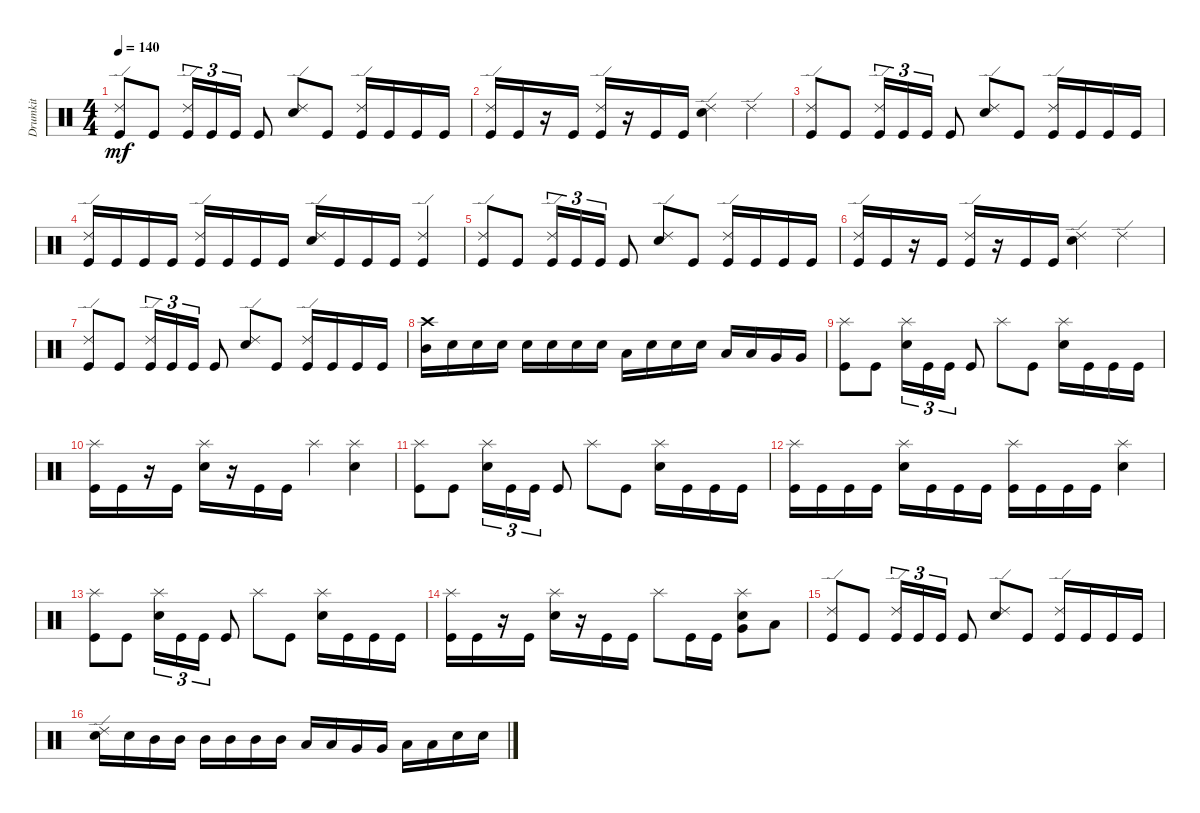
\track ("Drumkit" "Drumkit") {instrument percussion}
\staff {score}
\articulation defaults
\ts (4 4)
\tempo 140
\clef neutral
\ks c
("Ride (edge) 2" "Kick (hit)").8{dy mf} "Kick (hit)".8 ("Kick (hit)" "Ride (edge) 2").16{tu (3 2)} "Kick (hit)".16{tu (3 2)} "Kick (hit)".16{tu (3 2)} "Kick (hit)".8 ("Ride (edge) 2" "Snare (hit) 2").8 "Kick (hit)".8 ("Kick (hit)" "Ride (edge) 2").16 "Kick (hit)".16 "Kick (hit)".16 "Kick (hit)".16 |
("Kick (hit)" "Ride (edge) 2").16 "Kick (hit)".16 r.16 "Kick (hit)".16 ("Kick (hit)" "Ride (edge) 2").16 r.16 "Kick (hit)".16 "Kick (hit)".16 ("Ride (edge) 2" "Snare (hit) 2").4 "Ride (edge) 2".4 |
("Ride (edge) 2" "Kick (hit)").8 "Kick (hit)".8 ("Kick (hit)" "Ride (edge) 2").16{tu (3 2)} "Kick (hit)".16{tu (3 2)} "Kick (hit)".16{tu (3 2)} "Kick (hit)".8 ("Ride (edge) 2" "Snare (hit) 2").8 "Kick (hit)".8 ("Kick (hit)" "Ride (edge) 2").16 "Kick (hit)".16 "Kick (hit)".16 "Kick (hit)".16 |
("Kick (hit)" "Ride (edge) 2").16 "Kick (hit)".16 "Kick (hit)".16 "Kick (hit)".16 ("Kick (hit)" "Ride (edge) 2").16 "Kick (hit)".16 "Kick (hit)".16 "Kick (hit)".16 ("Snare (hit) 2" "Ride (edge) 2").16 "Kick (hit)".16 "Kick (hit)".16 "Kick (hit)".16 ("Kick (hit)" "Ride (edge) 2").4 |
("Ride (edge) 2" "Kick (hit)").8 "Kick (hit)".8 ("Kick (hit)" "Ride (edge) 2").16{tu (3 2)} "Kick (hit)".16{tu (3 2)} "Kick (hit)".16{tu (3 2)} "Kick (hit)".8 ("Ride (edge) 2" "Snare (hit) 2").8 "Kick (hit)".8 ("Kick (hit)" "Ride (edge) 2").16 "Kick (hit)".16 "Kick (hit)".16 "Kick (hit)".16 |
("Kick (hit)" "Ride (edge) 2").16 "Kick (hit)".16 r.16 "Kick (hit)".16 ("Kick (hit)" "Ride (edge) 2").16 r.16 "Kick (hit)".16 "Kick (hit)".16 ("Ride (edge) 2" "Snare (hit) 2").4 "Ride (edge) 2".4 |
("Ride (edge) 2" "Kick (hit)").8 "Kick (hit)".8 ("Kick (hit)" "Ride (edge) 2").16{tu (3 2)} "Kick (hit)".16{tu (3 2)} "Kick (hit)".16{tu (3 2)} "Kick (hit)".8 ("Ride (edge) 2" "Snare (hit) 2").8 "Kick (hit)".8 ("Kick (hit)" "Ride (edge) 2").16 "Kick (hit)".16 "Kick (hit)".16 "Kick (hit)".16 |
("Mid Tom (hit)" "Crash high (hit)").16 "Snare (hit) 2".16 "Snare (hit) 2".16 "Snare (hit) 2".16 "Snare (hit) 2".16 "Snare (hit) 2".16 "Snare (hit) 2".16 "Snare (hit) 2".16 "Low Tom (hit)".16 "Snare (hit) 2".16 "Snare (hit) 2".16 "Snare (hit) 2".16 "Low Tom (hit)".16 "Low Tom (hit)".16 "Very Low Tom (hit)".16 "Very Low Tom (hit)".16 |
("Kick (hit)" "Splash (hit)").8 "Kick (hit)".8 ("Splash (hit)" "Snare (hit) 2").16{tu (3 2)} "Kick (hit)".16{tu (3 2)} "Kick (hit)".16{tu (3 2)} "Kick (hit)".8 "Splash (hit)".8 "Kick (hit)".8 ("Splash (hit)" "Snare (hit) 2").16 "Kick (hit)".16 "Kick (hit)".16 "Kick (hit)".16 |
("Kick (hit)" "Splash (hit)").16 "Kick (hit)".16 r.16 "Kick (hit)".16 ("Snare (hit) 2" "Splash (hit)").16 r.16 "Kick (hit)".16 "Kick (hit)".16 "Splash (hit)".4 ("Snare (hit) 2" "Splash (hit)").4 |
("Kick (hit)" "Splash (hit)").8 "Kick (hit)".8 ("Splash (hit)" "Snare (hit) 2").16{tu (3 2)} "Kick (hit)".16{tu (3 2)} "Kick (hit)".16{tu (3 2)} "Kick (hit)".8 "Splash (hit)".8 "Kick (hit)".8 ("Splash (hit)" "Snare (hit) 2").16 "Kick (hit)".16 "Kick (hit)".16 "Kick (hit)".16 |
("Kick (hit)" "Splash (hit)").16 "Kick (hit)".16 "Kick (hit)".16 "Kick (hit)".16 ("Snare (hit) 2" "Splash (hit)").16 "Kick (hit)".16 "Kick (hit)".16 "Kick (hit)".16 ("Kick (hit)" "Splash (hit)").16 "Kick (hit)".16 "Kick (hit)".16 "Kick (hit)".16 ("Snare (hit) 2" "Splash (hit)").4 |
("Kick (hit)" "Splash (hit)").8 "Kick (hit)".8 ("Splash (hit)" "Snare (hit) 2").16{tu (3 2)} "Kick (hit)".16{tu (3 2)} "Kick (hit)".16{tu (3 2)} "Kick (hit)".8 "Splash (hit)".8 "Kick (hit)".8 ("Splash (hit)" "Snare (hit) 2").16 "Kick (hit)".16 "Kick (hit)".16 "Kick (hit)".16 |
("Kick (hit)" "Splash (hit)").16 "Kick (hit)".16 r.16 "Kick (hit)".16 ("Snare (hit) 2" "Splash (hit)").16 r.16 "Kick (hit)".16 "Kick (hit)".16 "Splash (hit)".8 "Kick (hit)".16 "Kick (hit)".16 ("Snare (hit) 2" "Splash (hit)" "Very Low Tom (hit)").8 "Low Floor Tom (hit)".8 |
("Ride (edge) 2" "Kick (hit)").8 "Kick (hit)".8 ("Kick (hit)" "Ride (edge) 2").16{tu (3 2)} "Kick (hit)".16{tu (3 2)} "Kick (hit)".16{tu (3 2)} "Kick (hit)".8 ("Ride (edge) 2" "Snare (hit) 2").8 "Kick (hit)".8 ("Kick (hit)" "Ride (edge) 2").16 "Kick (hit)".16 "Kick (hit)".16 "Kick (hit)".16 |
("Snare (hit) 2" "Ride (edge) 2").16 "Snare (hit) 2".16 "Mid Tom (hit)".16 "Mid Tom (hit)".16 "Mid Tom (hit)".16 "Mid Tom (hit)".16 "Mid Tom (hit)".16 "Mid Tom (hit)".16 "Low Tom (hit)".16 "Low Tom (hit)".16 "Very Low Tom (hit)".16 "Very Low Tom (hit)".16 "Low Floor Tom (hit)".16 "Low Floor Tom (hit)".16 "Snare (hit) 2".16 "Snare (hit) 2".16
